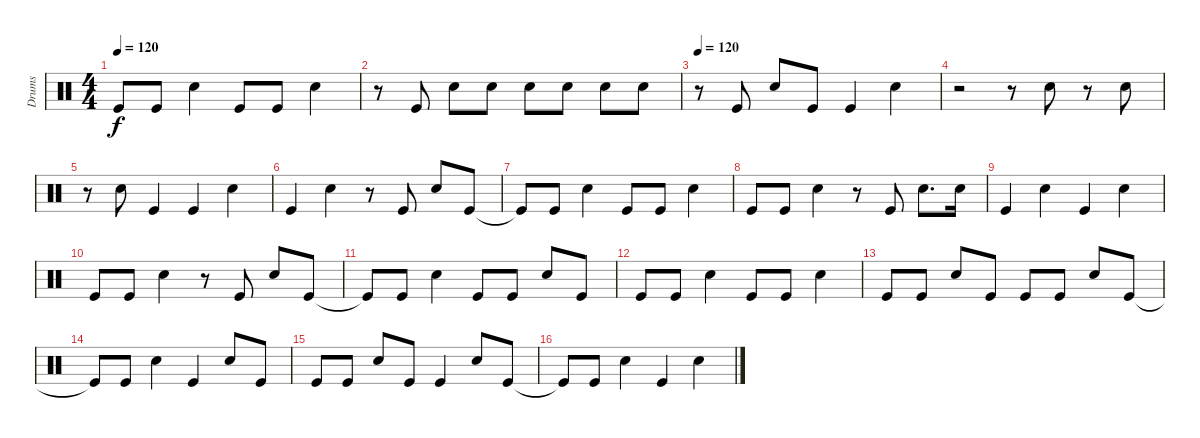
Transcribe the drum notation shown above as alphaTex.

\track ("Drums" "Drums") {instrument percussion}
\staff {score}
\articulation defaults
\ts (4 4)
\tempo 120
\clef neutral
\ks c "Kick (hit)".8{dy f} "Kick (hit)".8 "Snare (hit) 2".4 "Kick (hit)".8 "Kick (hit)".8 "Snare (hit) 2".4
|
r.8 "Kick (hit)".8 "Snare (hit) 2".8 "Snare (hit) 2".8 "Snare (hit) 2".8 "Snare (hit) 2".8 "Snare (hit) 2".8 "Snare (hit) 2".8 |
\tempo 120
r.8 "Kick (hit)".8 "Snare (hit) 2".8 "Kick (hit)".8 "Kick (hit)".4 "Snare (hit) 2".4 |
r.2 r.8 "Snare (hit) 2".8 r.8 "Snare (hit) 2".8 |
r.8 "Snare (hit) 2".8 "Kick (hit)".4 "Kick (hit)".4 "Snare (hit) 2".4 |
"Kick (hit)".4 "Snare (hit) 2".4 r.8 "Kick (hit)".8 "Snare (hit) 2".8 "Kick (hit)".8 |
"Kick (hit)"{t}.8 "Kick (hit)".8 "Snare (hit) 2".4 "Kick (hit)".8 "Kick (hit)".8 "Snare (hit) 2".4 |
"Kick (hit)".8 "Kick (hit)".8 "Snare (hit) 2".4 r.8 "Kick (hit)".8 "Snare (hit) 2".8{d} "Snare (hit) 2".16 |
"Kick (hit)".4 "Snare (hit) 2".4 "Kick (hit)".4 "Snare (hit) 2".4 |
"Kick (hit)".8 "Kick (hit)".8 "Snare (hit) 2".4 r.8 "Kick (hit)".8 "Snare (hit) 2".8 "Kick (hit)".8 |
"Kick (hit)"{t}.8 "Kick (hit)".8 "Snare (hit) 2".4 "Kick (hit)".8 "Kick (hit)".8 "Snare (hit) 2".8 "Kick (hit)".8 |
"Kick (hit)".8 "Kick (hit)".8 "Snare (hit) 2".4 "Kick (hit)".8 "Kick (hit)".8 "Snare (hit) 2".4 |
"Kick (hit)".8 "Kick (hit)".8 "Snare (hit) 2".8 "Kick (hit)".8 "Kick (hit)".8 "Kick (hit)".8 "Snare (hit) 2".8 "Kick (hit)".8 |
"Kick (hit)"{t}.8 "Kick (hit)".8 "Snare (hit) 2".4 "Kick (hit)".4 "Snare (hit) 2".8 "Kick (hit)".8 |
"Kick (hit)".8 "Kick (hit)".8 "Snare (hit) 2".8 "Kick (hit)".8 "Kick (hit)".4 "Snare (hit) 2".8 "Kick (hit)".8 |
"Kick (hit)"{t}.8 "Kick (hit)".8 "Snare (hit) 2".4 "Kick (hit)".4 "Snare (hit) 2".4
